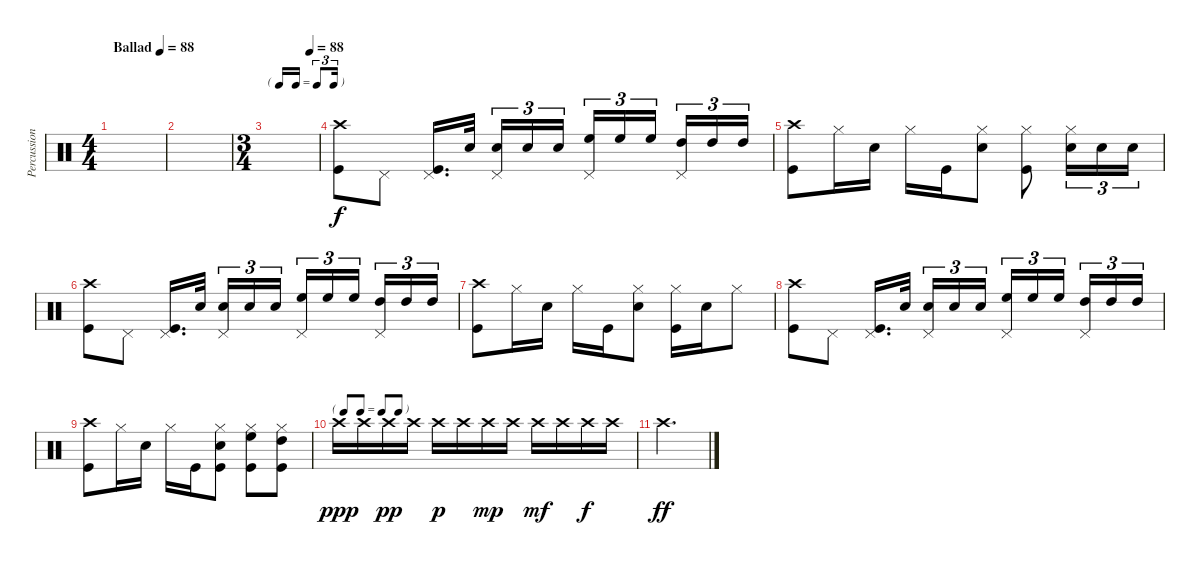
\track ("Percussion" "Percussion") {instrument percussion}
\staff {score}
\articulation defaults
\ts (4 4)
\tempo (88 "Ballad")
\tempo 60
\tempo (88 "Ballad")
\clef neutral
\ks c
|
|
\ts (3 4)
\tf triplet16th
\tempo (88 0.8333333333333334)
|
("Kick (hit)" "Crash high (hit)").8 "Pedal Hi-Hat (hit)".8 ("Pedal Hi-Hat (hit)" "Kick (hit)").16{d} "Snare (hit) 2".32{beam splitsecondary} ("Snare (hit) 2" "Pedal Hi-Hat (hit)").16{tu (3 2)} "Snare (hit) 2".16{tu (3 2)} "Snare (hit) 2".16{tu (3 2)} ("High Floor Tom (hit)" "Pedal Hi-Hat (hit)").16{tu (3 2)} "High Floor Tom (hit)".16{tu (3 2)} "High Floor Tom (hit)".16{tu (3 2) beam splitsecondary} ("High Tom (hit)" "Pedal Hi-Hat (hit)").16{tu (3 2)} "High Tom (hit)".16{tu (3 2)} "High Tom (hit)".16{tu (3 2)} |
("Kick (hit)" "Crash high (hit)").8 "Hi-Hat (closed)".16 "Snare (hit) 2".16 "Hi-Hat (closed)".16 "Kick (hit)".16 ("Snare (hit) 2" "Hi-Hat (closed)").8 ("Hi-Hat (closed)" "Kick (hit)").8 ("Snare (hit) 2" "Hi-Hat (closed)").16{tu (3 2)} "Snare (hit) 2".16{tu (3 2)} "Snare (hit) 2".16{tu (3 2)} |
("Kick (hit)" "Crash high (hit)").8 "Pedal Hi-Hat (hit)".8 ("Pedal Hi-Hat (hit)" "Kick (hit)").16{d} "Snare (hit) 2".32{beam splitsecondary} ("Snare (hit) 2" "Pedal Hi-Hat (hit)").16{tu (3 2)} "Snare (hit) 2".16{tu (3 2)} "Snare (hit) 2".16{tu (3 2)} ("High Floor Tom (hit)" "Pedal Hi-Hat (hit)").16{tu (3 2)} "High Floor Tom (hit)".16{tu (3 2)} "High Floor Tom (hit)".16{tu (3 2) beam splitsecondary} ("High Tom (hit)" "Pedal Hi-Hat (hit)").16{tu (3 2)} "High Tom (hit)".16{tu (3 2)} "High Tom (hit)".16{tu (3 2)} |
("Kick (hit)" "Crash high (hit)").8 "Hi-Hat (closed)".16 "Snare (hit) 2".16 "Hi-Hat (closed)".16 "Kick (hit)".16 ("Snare (hit) 2" "Hi-Hat (closed)").8 ("Hi-Hat (closed)" "Kick (hit)").16 "Snare (hit) 2".16 "Hi-Hat (closed)".8 |
("Kick (hit)" "Crash high (hit)").8 "Pedal Hi-Hat (hit)".8 ("Pedal Hi-Hat (hit)" "Kick (hit)").16{d} "Snare (hit) 2".32{beam splitsecondary} ("Snare (hit) 2" "Pedal Hi-Hat (hit)").16{tu (3 2)} "Snare (hit) 2".16{tu (3 2)} "Snare (hit) 2".16{tu (3 2)} ("High Floor Tom (hit)" "Pedal Hi-Hat (hit)").16{tu (3 2)} "High Floor Tom (hit)".16{tu (3 2)} "High Floor Tom (hit)".16{tu (3 2) beam splitsecondary} ("High Tom (hit)" "Pedal Hi-Hat (hit)").16{tu (3 2)} "High Tom (hit)".16{tu (3 2)} "High Tom (hit)".16{tu (3 2)} |
("Kick (hit)" "Crash high (hit)").8 "Hi-Hat (closed)".16 "Snare (hit) 2".16 "Hi-Hat (closed)".16 "Kick (hit)".16 ("Snare (hit) 2" "Hi-Hat (closed)" "Kick (hit)").8 ("Hi-Hat (closed)" "Kick (hit)" "High Floor Tom (hit)").8 ("Kick (hit)" "High Tom (hit)" "Hi-Hat (closed)").8 |
\tf none "Crash high (hit)".16{dy ppp} "Crash high (hit)".16 "Crash high (hit)".16{dy pp} "Crash high (hit)".16 "Crash high (hit)".16{dy p} "Crash high (hit)".16 "Crash high (hit)".16{dy mp} "Crash high (hit)".16 "Crash high (hit)".16{dy mf} "Crash high (hit)".16 "Crash high (hit)".16{dy f} "Crash high (hit)".16
|
"Crash high (hit)".2{d dy ff}
